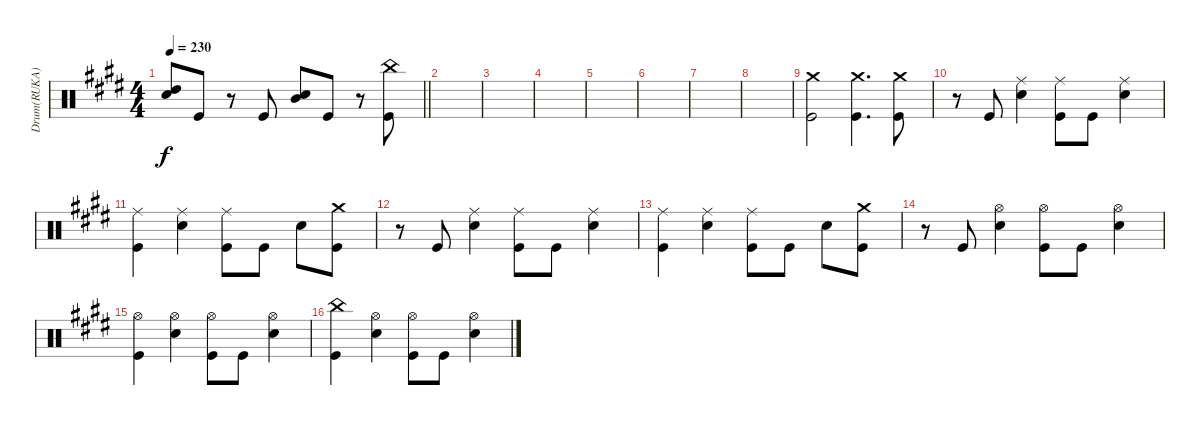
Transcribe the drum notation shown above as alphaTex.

\track ("Drum(RUKA)" "Drum(RUKA)") {instrument percussion}
\staff {score}
\articulation defaults
\ts (4 4)
\tempo 230
\clef neutral
\barLineRight lightlight
\ks e
("Electric Snare (hit)" "High Tom (hit)").8{dy f} "Kick (hit)".8 r.8 "Kick (hit)".8 ("Electric Snare (hit)" "Mid Tom (hit)").8 "Kick (hit)".8 r.8 ("China (hit)" "Kick (hit)").8 |
|
|
|
|
|
|
|
("Crash medium (hit)" "Kick (hit)").2 ("Crash medium (hit)" "Kick (hit)").4{d} ("Crash medium (hit)" "Kick (hit)").8 |
r.8 "Kick (hit)".8 ("Ride (middle)" "Electric Snare (hit)").4 ("Ride (middle)" "Kick (hit)").8 "Kick (hit)".8 ("Ride (middle)" "Electric Snare (hit)").4 |
("Ride (middle)" "Kick (hit)").4 ("Ride (middle)" "Electric Snare (hit)").4 ("Ride (middle)" "Kick (hit)").8 "Kick (hit)".8 "Electric Snare (hit)".8 ("Crash medium (hit)" "Kick (hit)").8 |
r.8 "Kick (hit)".8 ("Ride (middle)" "Electric Snare (hit)").4 ("Ride (middle)" "Kick (hit)").8 "Kick (hit)".8 ("Ride (middle)" "Electric Snare (hit)").4 |
("Ride (middle)" "Kick (hit)").4 ("Ride (middle)" "Electric Snare (hit)").4 ("Ride (middle)" "Kick (hit)").8 "Kick (hit)".8 "Electric Snare (hit)".8 ("Crash medium (hit)" "Kick (hit)").8 |
r.8 "Kick (hit)".8 ("Hi-Hat (open)" "Electric Snare (hit)").4 ("Hi-Hat (open)" "Kick (hit)").8 "Kick (hit)".8 ("Hi-Hat (open)" "Electric Snare (hit)").4 |
("Hi-Hat (open)" "Kick (hit)").4 ("Hi-Hat (open)" "Electric Snare (hit)").4 ("Hi-Hat (open)" "Kick (hit)").8 "Kick (hit)".8 ("Hi-Hat (open)" "Electric Snare (hit)").4 |
("China (hit)" "Kick (hit)").4 ("Hi-Hat (open)" "Electric Snare (hit)").4 ("Hi-Hat (open)" "Kick (hit)").8 "Kick (hit)".8 ("Hi-Hat (open)" "Electric Snare (hit)").4
